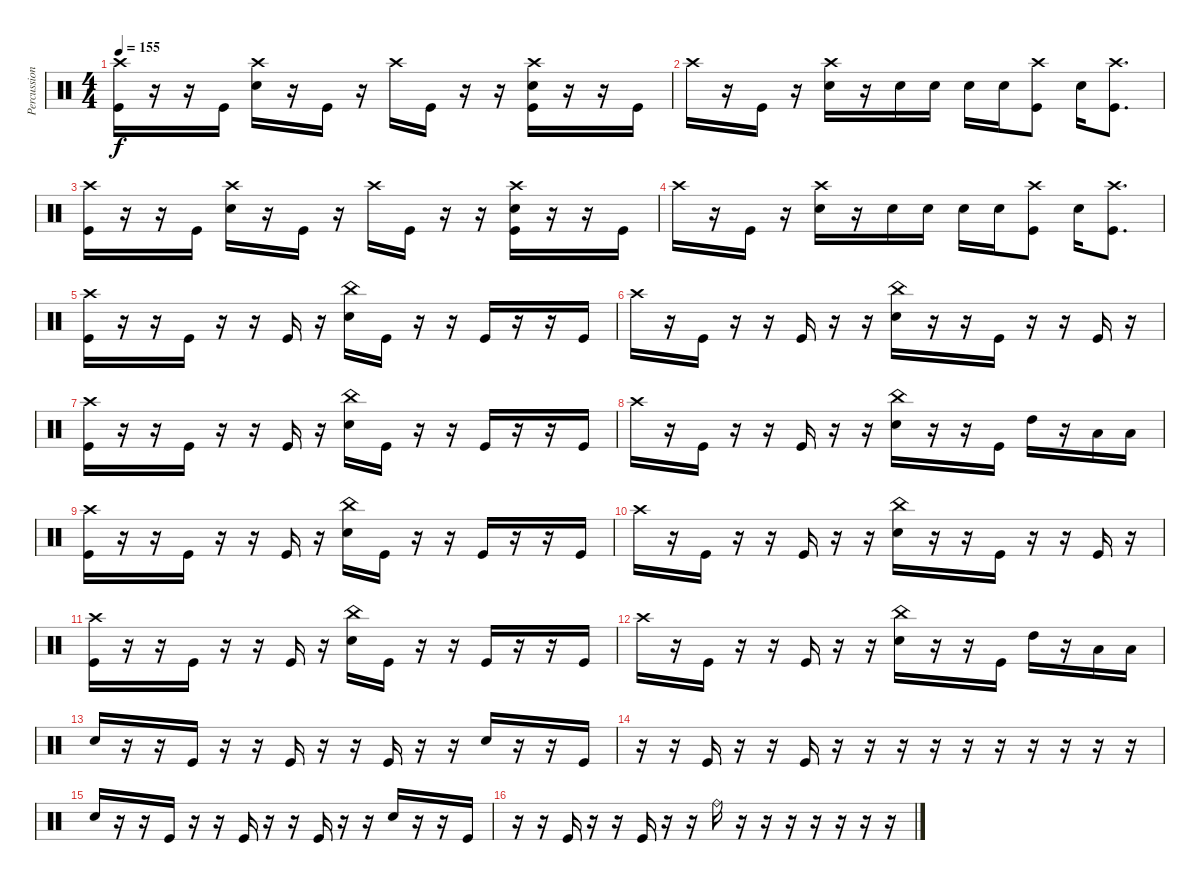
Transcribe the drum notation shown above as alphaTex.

\track ("Percussion" "Percussion") {instrument percussion}
\staff {score}
\articulation defaults
\ts (4 4)
\tempo 155
\clef neutral
\ks c
("Crash high (hit)" "Kick (hit)").16{dy f} r.16 r.16 "Kick (hit)".16 ("Crash high (hit)" "Snare (hit) 2").16 r.16 "Kick (hit)".16 r.16 "Crash high (hit)".16 "Kick (hit)".16 r.16 r.16 ("Crash high (hit)" "Kick (hit)" "Snare (hit) 2").16 r.16 r.16 "Kick (hit)".16 |
"Crash high (hit)".16 r.16 "Kick (hit)".16 r.16 ("Crash high (hit)" "Snare (hit) 2").16 r.16 "Snare (hit) 2".16 "Snare (hit) 2".16 "Snare (hit) 2".16 "Snare (hit) 2".16 ("Kick (hit)" "Crash high (hit)").8 "Snare (hit) 2".16 ("Kick (hit)" "Crash high (hit)").8{d} |
("Crash high (hit)" "Kick (hit)").16 r.16 r.16 "Kick (hit)".16 ("Crash high (hit)" "Snare (hit) 2").16 r.16 "Kick (hit)".16 r.16 "Crash high (hit)".16 "Kick (hit)".16 r.16 r.16 ("Crash high (hit)" "Kick (hit)" "Snare (hit) 2").16 r.16 r.16 "Kick (hit)".16 |
"Crash high (hit)".16 r.16 "Kick (hit)".16 r.16 ("Crash high (hit)" "Snare (hit) 2").16 r.16 "Snare (hit) 2".16 "Snare (hit) 2".16 "Snare (hit) 2".16 "Snare (hit) 2".16 ("Kick (hit)" "Crash high (hit)").8 "Snare (hit) 2".16 ("Kick (hit)" "Crash high (hit)").8{d} |
("Crash high (hit)" "Kick (hit)").16 r.16 r.16 "Kick (hit)".16 r.16 r.16 "Kick (hit)".16 r.16 ("China (hit)" "Snare (hit) 2").16 "Kick (hit)".16 r.16 r.16 "Kick (hit)".16 r.16 r.16 "Kick (hit)".16 |
"Crash high (hit)".16 r.16 "Kick (hit)".16 r.16 r.16 "Kick (hit)".16 r.16 r.16 ("China (hit)" "Snare (hit) 2").16 r.16 r.16 "Kick (hit)".16 r.16 r.16 "Kick (hit)".16 r.16 |
("Crash high (hit)" "Kick (hit)").16 r.16 r.16 "Kick (hit)".16 r.16 r.16 "Kick (hit)".16 r.16 ("China (hit)" "Snare (hit) 2").16 "Kick (hit)".16 r.16 r.16 "Kick (hit)".16 r.16 r.16 "Kick (hit)".16 |
"Crash high (hit)".16 r.16 "Kick (hit)".16 r.16 r.16 "Kick (hit)".16 r.16 r.16 ("China (hit)" "Snare (hit) 2").16 r.16 r.16 "Kick (hit)".16 "High Tom (hit)".16 r.16 "Low Floor Tom (hit)".16 "Low Floor Tom (hit)".16 |
("Crash high (hit)" "Kick (hit)").16 r.16 r.16 "Kick (hit)".16 r.16 r.16 "Kick (hit)".16 r.16 ("China (hit)" "Snare (hit) 2").16 "Kick (hit)".16 r.16 r.16 "Kick (hit)".16 r.16 r.16 "Kick (hit)".16 |
"Crash high (hit)".16 r.16 "Kick (hit)".16 r.16 r.16 "Kick (hit)".16 r.16 r.16 ("China (hit)" "Snare (hit) 2").16 r.16 r.16 "Kick (hit)".16 r.16 r.16 "Kick (hit)".16 r.16 |
("Crash high (hit)" "Kick (hit)").16 r.16 r.16 "Kick (hit)".16 r.16 r.16 "Kick (hit)".16 r.16 ("China (hit)" "Snare (hit) 2").16 "Kick (hit)".16 r.16 r.16 "Kick (hit)".16 r.16 r.16 "Kick (hit)".16 |
"Crash high (hit)".16 r.16 "Kick (hit)".16 r.16 r.16 "Kick (hit)".16 r.16 r.16 ("China (hit)" "Snare (hit) 2").16 r.16 r.16 "Kick (hit)".16 "High Tom (hit)".16 r.16 "Low Floor Tom (hit)".16 "Low Floor Tom (hit)".16 |
"Snare (hit) 2".16 r.16 r.16 "Kick (hit)".16 r.16 r.16 "Kick (hit)".16 r.16 r.16 "Kick (hit)".16 r.16 r.16 "Snare (hit) 2".16 r.16 r.16 "Kick (hit)".16 |
r.16 r.16 "Kick (hit)".16 r.16 r.16 "Kick (hit)".16 r.16 r.16 r.16 r.16 r.16 r.16 r.16 r.16 r.16 r.16 |
"Snare (hit) 2".16 r.16 r.16 "Kick (hit)".16 r.16 r.16 "Kick (hit)".16 r.16 r.16 "Kick (hit)".16 r.16 r.16 "Snare (hit) 2".16 r.16 r.16 "Kick (hit)".16 |
r.16 r.16 "Kick (hit)".16 r.16 r.16 "Kick (hit)".16 r.16 r.16 "Ride (bell)".16 r.16 r.16 r.16 r.16 r.16 r.16 r.16
